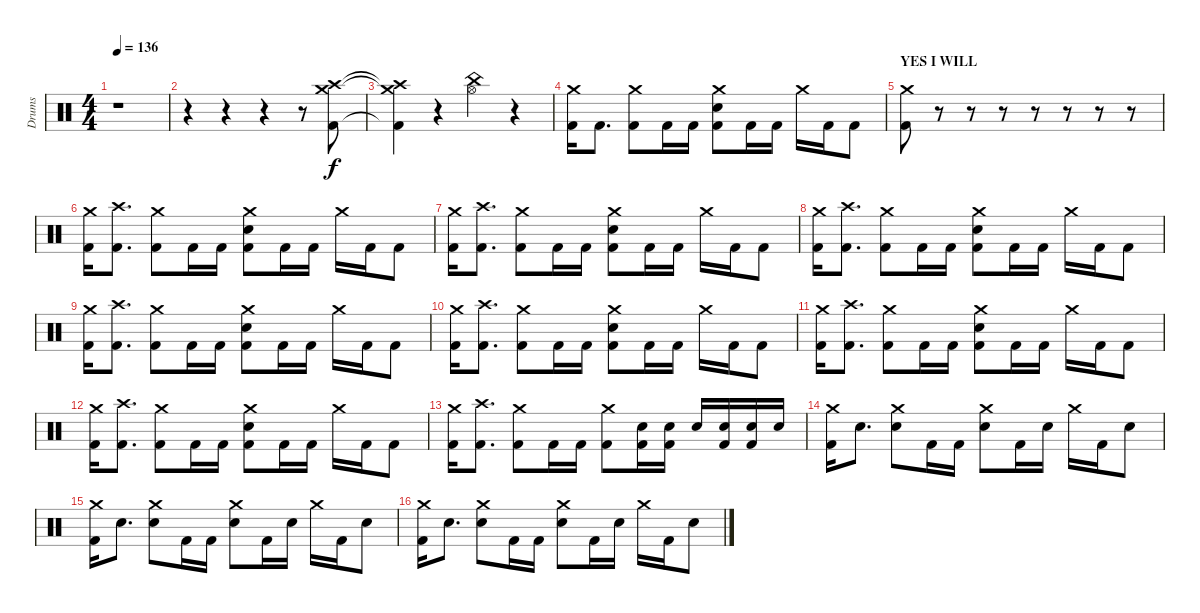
\track ("Drums" "Drums") {instrument percussion}
\staff {score}
\articulation defaults
\ts (4 4)
\tempo 136
\clef neutral
\ks c
r.1{dy f} |
r.4 r.4 r.4 r.8 ("Crash medium (hit)" "Crash high (hit)" "Kick (hit) 2").8 |
("Crash medium (hit)"{t} "Crash high (hit)"{t} "Kick (hit) 2"{t}).4 r.4 ("China (hit)" "Hi-Hat (open)").4 r.4 |
("Crash medium (hit)" "Kick (hit) 2").16 "Kick (hit) 2".8{d} ("Crash medium (hit)" "Kick (hit) 2").8 "Kick (hit) 2".16 "Kick (hit) 2".16 ("Crash medium (hit)" "Electric Snare (hit)" "Kick (hit) 2").8 "Kick (hit) 2".16 "Kick (hit) 2".16 "Crash medium (hit)".16 "Kick (hit) 2".16 "Kick (hit) 2".8 |
\section ("" "YES I WILL")
("Crash medium (hit)" "Kick (hit) 2").8 r.8 r.8 r.8 r.8 r.8 r.8 r.8 |
("Crash medium (hit)" "Kick (hit) 2").16 ("Crash high (hit)" "Kick (hit) 2").8{d} ("Crash medium (hit)" "Kick (hit) 2").8 "Kick (hit) 2".16 "Kick (hit) 2".16 ("Crash medium (hit)" "Electric Snare (hit)" "Kick (hit) 2").8 "Kick (hit) 2".16 "Kick (hit) 2".16 "Crash medium (hit)".16 "Kick (hit) 2".16 "Kick (hit) 2".8 |
("Crash medium (hit)" "Kick (hit) 2").16 ("Crash high (hit)" "Kick (hit) 2").8{d} ("Crash medium (hit)" "Kick (hit) 2").8 "Kick (hit) 2".16 "Kick (hit) 2".16 ("Crash medium (hit)" "Electric Snare (hit)" "Kick (hit) 2").8 "Kick (hit) 2".16 "Kick (hit) 2".16 "Crash medium (hit)".16 "Kick (hit) 2".16 "Kick (hit) 2".8 |
("Crash medium (hit)" "Kick (hit) 2").16 ("Crash high (hit)" "Kick (hit) 2").8{d} ("Crash medium (hit)" "Kick (hit) 2").8 "Kick (hit) 2".16 "Kick (hit) 2".16 ("Crash medium (hit)" "Electric Snare (hit)" "Kick (hit) 2").8 "Kick (hit) 2".16 "Kick (hit) 2".16 "Crash medium (hit)".16 "Kick (hit) 2".16 "Kick (hit) 2".8 |
("Crash medium (hit)" "Kick (hit) 2").16 ("Crash high (hit)" "Kick (hit) 2").8{d} ("Crash medium (hit)" "Kick (hit) 2").8 "Kick (hit) 2".16 "Kick (hit) 2".16 ("Crash medium (hit)" "Electric Snare (hit)" "Kick (hit) 2").8 "Kick (hit) 2".16 "Kick (hit) 2".16 "Crash medium (hit)".16 "Kick (hit) 2".16 "Kick (hit) 2".8 |
("Crash medium (hit)" "Kick (hit) 2").16 ("Crash high (hit)" "Kick (hit) 2").8{d} ("Crash medium (hit)" "Kick (hit) 2").8 "Kick (hit) 2".16 "Kick (hit) 2".16 ("Crash medium (hit)" "Electric Snare (hit)" "Kick (hit) 2").8 "Kick (hit) 2".16 "Kick (hit) 2".16 "Crash medium (hit)".16 "Kick (hit) 2".16 "Kick (hit) 2".8 |
("Crash medium (hit)" "Kick (hit) 2").16 ("Crash high (hit)" "Kick (hit) 2").8{d} ("Crash medium (hit)" "Kick (hit) 2").8 "Kick (hit) 2".16 "Kick (hit) 2".16 ("Crash medium (hit)" "Electric Snare (hit)" "Kick (hit) 2").8 "Kick (hit) 2".16 "Kick (hit) 2".16 "Crash medium (hit)".16 "Kick (hit) 2".16 "Kick (hit) 2".8 |
("Crash medium (hit)" "Kick (hit) 2").16 ("Crash high (hit)" "Kick (hit) 2").8{d} ("Crash medium (hit)" "Kick (hit) 2").8 "Kick (hit) 2".16 "Kick (hit) 2".16 ("Crash medium (hit)" "Electric Snare (hit)" "Kick (hit) 2").8 "Kick (hit) 2".16 "Kick (hit) 2".16 "Crash medium (hit)".16 "Kick (hit) 2".16 "Kick (hit) 2".8 |
("Crash medium (hit)" "Kick (hit) 2").16 ("Crash high (hit)" "Kick (hit) 2").8{d} ("Crash medium (hit)" "Kick (hit) 2").8 "Kick (hit) 2".16 "Kick (hit) 2".16 ("Crash medium (hit)" "Kick (hit) 2").8 ("Electric Snare (hit)" "Kick (hit) 2").16 ("Electric Snare (hit)" "Kick (hit) 2").16 "Electric Snare (hit)".16 ("Electric Snare (hit)" "Kick (hit) 2").16 ("Electric Snare (hit)" "Kick (hit) 2").16 "Electric Snare (hit)".16 |
("Crash medium (hit)" "Kick (hit) 2").16 "Electric Snare (hit)".8{d} ("Crash medium (hit)" "Electric Snare (hit)").8 "Kick (hit) 2".16 "Kick (hit) 2".16 ("Crash medium (hit)" "Electric Snare (hit)").8 "Kick (hit) 2".16 "Electric Snare (hit)".16 "Crash medium (hit)".16 "Kick (hit) 2".16 "Electric Snare (hit)".8 |
("Crash medium (hit)" "Kick (hit) 2").16 "Electric Snare (hit)".8{d} ("Crash medium (hit)" "Electric Snare (hit)").8 "Kick (hit) 2".16 "Kick (hit) 2".16 ("Crash medium (hit)" "Electric Snare (hit)").8 "Kick (hit) 2".16 "Electric Snare (hit)".16 "Crash medium (hit)".16 "Kick (hit) 2".16 "Electric Snare (hit)".8 |
("Crash medium (hit)" "Kick (hit) 2").16 "Electric Snare (hit)".8{d} ("Crash medium (hit)" "Electric Snare (hit)").8 "Kick (hit) 2".16 "Kick (hit) 2".16 ("Crash medium (hit)" "Electric Snare (hit)").8 "Kick (hit) 2".16 "Electric Snare (hit)".16 "Crash medium (hit)".16 "Kick (hit) 2".16 "Electric Snare (hit)".8
